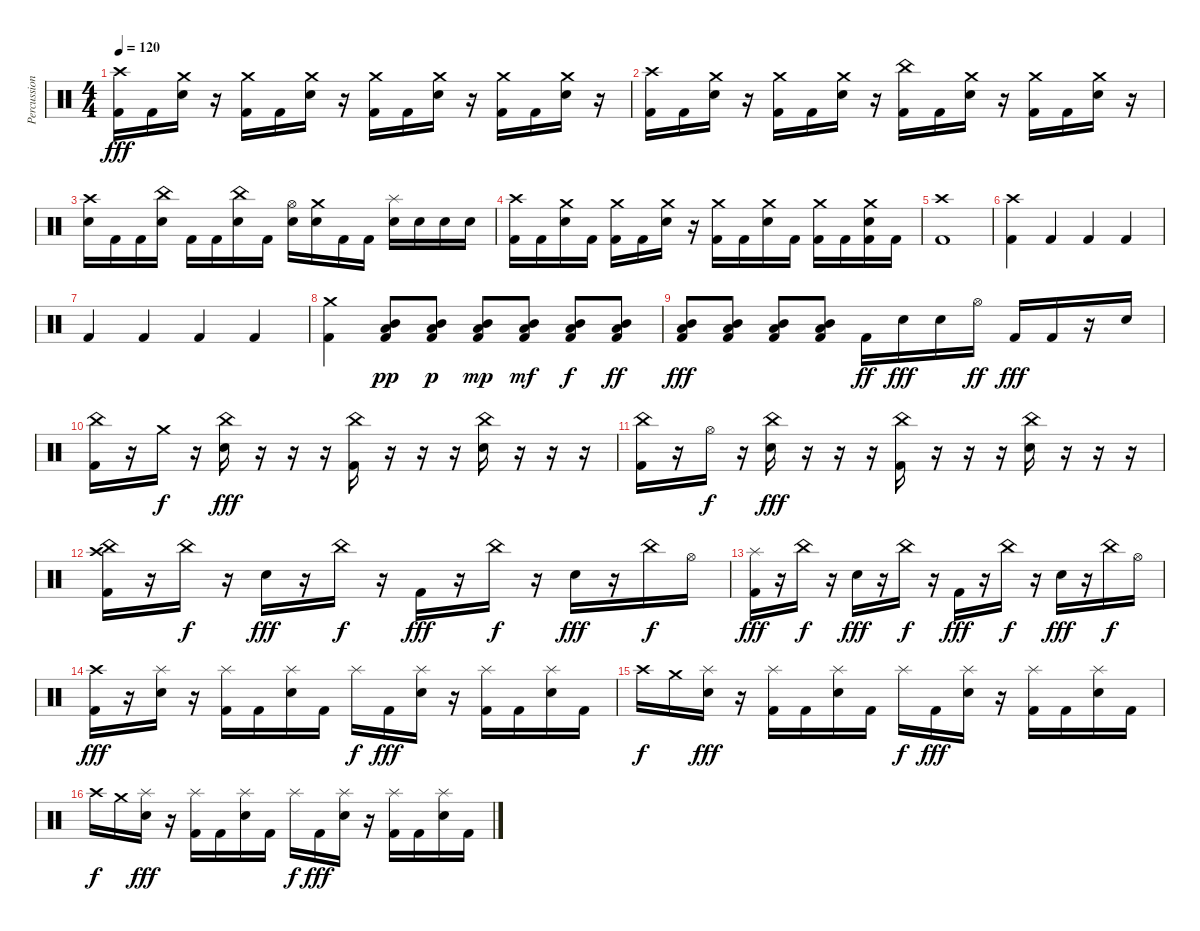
\track ("Percussion" "Percussion") {instrument percussion}
\staff {score}
\articulation defaults
\ts (4 4)
\tempo 120
\clef neutral
\ks c
("Crash high (hit)" "Kick (hit) 2").16{dy fff} "Kick (hit) 2".16 ("Crash medium (hit)" "Electric Snare (hit)").16 r.16 ("Crash medium (hit)" "Kick (hit) 2").16 "Kick (hit) 2".16 ("Crash medium (hit)" "Electric Snare (hit)").16 r.16 ("Crash medium (hit)" "Kick (hit) 2").16 "Kick (hit) 2".16 ("Crash medium (hit)" "Electric Snare (hit)").16 r.16 ("Crash medium (hit)" "Kick (hit) 2").16 "Kick (hit) 2".16 ("Crash medium (hit)" "Electric Snare (hit)").16 r.16 |
("Crash high (hit)" "Kick (hit) 2").16 "Kick (hit) 2".16 ("Crash medium (hit)" "Electric Snare (hit)").16 r.16 ("Crash medium (hit)" "Kick (hit) 2").16 "Kick (hit) 2".16 ("Crash medium (hit)" "Electric Snare (hit)").16 r.16 ("China (hit)" "Kick (hit) 2").16 "Kick (hit) 2".16 ("Crash medium (hit)" "Electric Snare (hit)").16 r.16 ("Crash medium (hit)" "Kick (hit) 2").16 "Kick (hit) 2".16 ("Crash medium (hit)" "Electric Snare (hit)").16 r.16 |
("Crash high (hit)" "Electric Snare (hit)").16 "Kick (hit) 2".16 "Kick (hit) 2".16 ("China (hit)" "Electric Snare (hit)").16 "Kick (hit) 2".16 "Kick (hit) 2".16 ("China (hit)" "Electric Snare (hit)").16 "Kick (hit) 2".16 ("Hi-Hat (open)" "Electric Snare (hit)").16 ("Crash medium (hit)" "Electric Snare (hit)").16 "Kick (hit) 2".16 "Kick (hit) 2".16 ("Splash (hit)" "Electric Snare (hit)").16 "Electric Snare (hit)".16 "Electric Snare (hit)".16 "Electric Snare (hit)".16 |
("Crash high (hit)" "Kick (hit) 2").16 "Kick (hit) 2".16 ("Crash medium (hit)" "Electric Snare (hit)").16 "Kick (hit) 2".16 ("Crash medium (hit)" "Kick (hit) 2").16 "Kick (hit) 2".16 ("Crash medium (hit)" "Electric Snare (hit)").16 r.16 ("Crash medium (hit)" "Kick (hit) 2").16 "Kick (hit) 2".16 ("Crash medium (hit)" "Electric Snare (hit)").16 "Kick (hit) 2".16 ("Crash medium (hit)" "Kick (hit) 2").16 "Kick (hit) 2".16 ("Crash medium (hit)" "Electric Snare (hit)" "Kick (hit) 2").16 "Kick (hit) 2".16 |
("Crash high (hit)" "Kick (hit) 2").1 |
("Crash high (hit)" "Kick (hit) 2").4 "Kick (hit) 2".4 "Kick (hit) 2".4 "Kick (hit) 2".4 |
"Kick (hit) 2".4 "Kick (hit) 2".4 "Kick (hit) 2".4 "Kick (hit) 2".4 |
("Crash medium (hit)" "Kick (hit) 2").4 ("Mid Tom (hit)" "Low Tom (hit)" "Kick (hit) 2").8{dy pp} ("Mid Tom (hit)" "Low Tom (hit)" "Kick (hit) 2").8{dy p} ("Mid Tom (hit)" "Low Tom (hit)" "Kick (hit) 2").8{dy mp} ("Mid Tom (hit)" "Low Tom (hit)" "Kick (hit) 2").8{dy mf} ("Mid Tom (hit)" "Low Tom (hit)" "Kick (hit) 2").8{dy f} ("Mid Tom (hit)" "Low Tom (hit)" "Kick (hit) 2").8{dy ff} |
("Mid Tom (hit)" "Low Tom (hit)" "Kick (hit) 2").8{dy fff} ("Mid Tom (hit)" "Low Tom (hit)" "Kick (hit) 2").8 ("Mid Tom (hit)" "Low Tom (hit)" "Kick (hit) 2").8 ("Mid Tom (hit)" "Low Tom (hit)" "Kick (hit) 2").8 "Kick (hit) 2".16{dy ff} "Electric Snare (hit)".16{dy fff} "Electric Snare (hit)".16 "Hi-Hat (open)".16{dy ff} "Kick (hit) 2".16{dy fff} "Kick (hit) 2".16 r.16 "Electric Snare (hit)".16 |
("China (hit)" "Kick (hit) 2").16 r.16 "Crash medium (hit)".16{dy f} r.16 ("China (hit)" "Electric Snare (hit)").16{dy fff} r.16 r.16 r.16 ("China (hit)" "Kick (hit) 2").16 r.16 r.16 r.16 ("China (hit)" "Electric Snare (hit)").16 r.16 r.16 r.16 |
("China (hit)" "Kick (hit) 2").16 r.16 "Hi-Hat (open)".16{dy f} r.16 ("China (hit)" "Electric Snare (hit)").16{dy fff} r.16 r.16 r.16 ("China (hit)" "Kick (hit) 2").16 r.16 r.16 r.16 ("China (hit)" "Electric Snare (hit)").16 r.16 r.16 r.16 |
("China (hit)" "Crash high (hit)" "Kick (hit) 2").16 r.16 "China (hit)".16{dy f} r.16 "Electric Snare (hit)".16{dy fff} r.16 "China (hit)".16{dy f} r.16 "Kick (hit) 2".16{dy fff} r.16 "China (hit)".16{dy f} r.16 "Electric Snare (hit)".16{dy fff} r.16 "China (hit)".16{dy f} "Hi-Hat (open)".16 |
("Splash (hit)" "Kick (hit) 2").16{dy fff} r.16 "China (hit)".16{dy f} r.16 "Electric Snare (hit)".16{dy fff} r.16 "China (hit)".16{dy f} r.16 "Kick (hit) 2".16{dy fff} r.16 "China (hit)".16{dy f} r.16 "Electric Snare (hit)".16{dy fff} r.16 "China (hit)".16{dy f} "Hi-Hat (open)".16 |
("Crash high (hit)" "Kick (hit) 2").16{dy fff} r.16 ("Splash (hit)" "Electric Snare (hit)").16 r.16 ("Splash (hit)" "Kick (hit) 2").16 "Kick (hit) 2".16 ("Splash (hit)" "Electric Snare (hit)").16 "Kick (hit) 2".16 "Splash (hit)".16{dy f} "Kick (hit) 2".16{dy fff} ("Splash (hit)" "Electric Snare (hit)").16 r.16 ("Splash (hit)" "Kick (hit) 2").16 "Kick (hit) 2".16 ("Splash (hit)" "Electric Snare (hit)").16 "Kick (hit) 2".16 |
"Crash high (hit)".16{dy f} "Crash medium (hit)".16 ("Splash (hit)" "Electric Snare (hit)").16{dy fff} r.16 ("Splash (hit)" "Kick (hit) 2").16 "Kick (hit) 2".16 ("Splash (hit)" "Electric Snare (hit)").16 "Kick (hit) 2".16 "Splash (hit)".16{dy f} "Kick (hit) 2".16{dy fff} ("Splash (hit)" "Electric Snare (hit)").16 r.16 ("Splash (hit)" "Kick (hit) 2").16 "Kick (hit) 2".16 ("Splash (hit)" "Electric Snare (hit)").16 "Kick (hit) 2".16 |
"Crash high (hit)".16{dy f} "Crash medium (hit)".16 ("Splash (hit)" "Electric Snare (hit)").16{dy fff} r.16 ("Splash (hit)" "Kick (hit) 2").16 "Kick (hit) 2".16 ("Splash (hit)" "Electric Snare (hit)").16 "Kick (hit) 2".16 "Splash (hit)".16{dy f} "Kick (hit) 2".16{dy fff} ("Splash (hit)" "Electric Snare (hit)").16 r.16 ("Splash (hit)" "Kick (hit) 2").16 "Kick (hit) 2".16 ("Splash (hit)" "Electric Snare (hit)").16 "Kick (hit) 2".16
